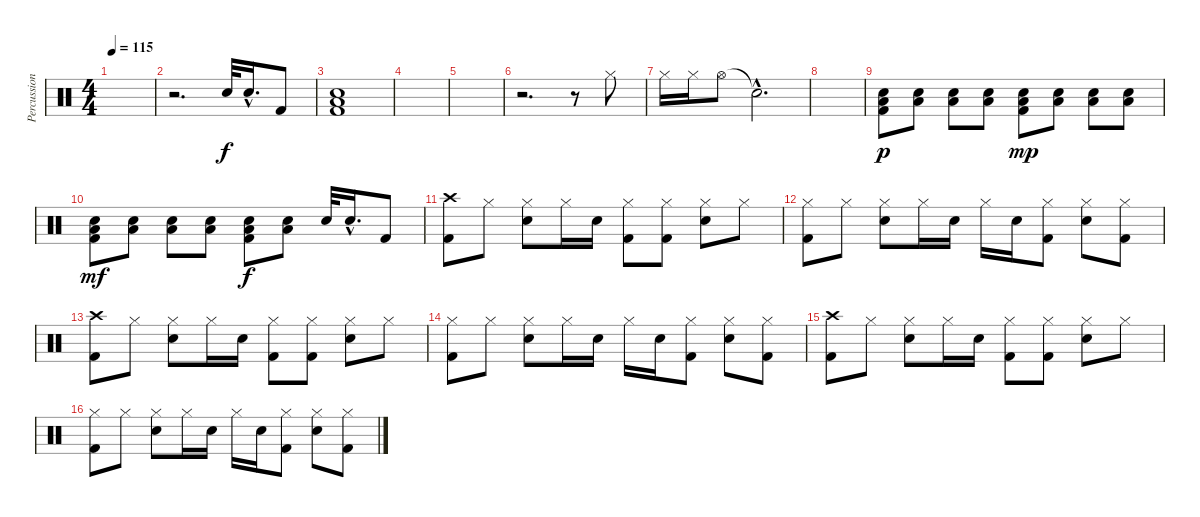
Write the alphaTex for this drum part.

\track ("Percussion" "Percussion") {instrument percussion}
\staff {score}
\articulation defaults
\ts (4 4)
\tempo 115
\clef neutral
\ks c
|
r.2{d} "Snare (hit) 2".32 "Snare (hit) 2"{hac}.16{d} "Kick (hit) 2".8 |
("Low Floor Tom (hit)" "Snare (hit) 2" "Kick (hit) 2").1 |
|
|
r.2{d} r.8 "Hi-Hat (closed)".8 |
"Hi-Hat (closed)".16 "Hi-Hat (closed)".16 "Hi-Hat (open)".8 "Snare (hit)"{hac t}.2{d} |
|
("Low Floor Tom (hit)" "Snare (hit) 2" "Kick (hit) 2").8{dy p} ("Low Floor Tom (hit)" "Snare (hit) 2").8 ("Low Floor Tom (hit)" "Snare (hit) 2").8 ("Low Floor Tom (hit)" "Snare (hit) 2").8 ("Low Floor Tom (hit)" "Snare (hit) 2" "Kick (hit) 2").8{dy mp} ("Low Floor Tom (hit)" "Snare (hit) 2").8 ("Low Floor Tom (hit)" "Snare (hit) 2").8 ("Low Floor Tom (hit)" "Snare (hit) 2").8 |
("Low Floor Tom (hit)" "Snare (hit) 2" "Kick (hit) 2").8{dy mf} ("Low Floor Tom (hit)" "Snare (hit) 2").8 ("Low Floor Tom (hit)" "Snare (hit) 2").8 ("Low Floor Tom (hit)" "Snare (hit) 2").8 ("Low Floor Tom (hit)" "Snare (hit) 2" "Kick (hit) 2").8{dy f} ("Low Floor Tom (hit)" "Snare (hit) 2").8 "Snare (hit) 2".32 "Snare (hit) 2"{hac}.16{d} "Kick (hit) 2".8 |
("Crash high (hit)" "Kick (hit) 2").8 "Hi-Hat (closed)".8 ("Hi-Hat (closed)" "Snare (hit) 2").8 "Hi-Hat (closed)".16 "Snare (hit) 2".16 ("Hi-Hat (closed)" "Kick (hit) 2").8 ("Hi-Hat (closed)" "Kick (hit) 2").8 ("Hi-Hat (closed)" "Snare (hit) 2").8 "Hi-Hat (closed)".8 |
("Hi-Hat (closed)" "Kick (hit) 2").8 "Hi-Hat (closed)".8 ("Hi-Hat (closed)" "Snare (hit) 2").8 "Hi-Hat (closed)".16 "Snare (hit) 2".16 "Hi-Hat (closed)".16 "Snare (hit) 2".16 ("Hi-Hat (closed)" "Kick (hit) 2").8 ("Hi-Hat (closed)" "Snare (hit) 2").8 ("Hi-Hat (closed)" "Kick (hit) 2").8 |
("Crash high (hit)" "Kick (hit) 2").8 "Hi-Hat (closed)".8 ("Hi-Hat (closed)" "Snare (hit) 2").8 "Hi-Hat (closed)".16 "Snare (hit) 2".16 ("Hi-Hat (closed)" "Kick (hit) 2").8 ("Hi-Hat (closed)" "Kick (hit) 2").8 ("Hi-Hat (closed)" "Snare (hit) 2").8 "Hi-Hat (closed)".8 |
("Hi-Hat (closed)" "Kick (hit) 2").8 "Hi-Hat (closed)".8 ("Hi-Hat (closed)" "Snare (hit) 2").8 "Hi-Hat (closed)".16 "Snare (hit) 2".16 "Hi-Hat (closed)".16 "Snare (hit) 2".16 ("Hi-Hat (closed)" "Kick (hit) 2").8 ("Hi-Hat (closed)" "Snare (hit) 2").8 ("Hi-Hat (closed)" "Kick (hit) 2").8 |
("Crash high (hit)" "Kick (hit) 2").8 "Hi-Hat (closed)".8 ("Hi-Hat (closed)" "Snare (hit) 2").8 "Hi-Hat (closed)".16 "Snare (hit) 2".16 ("Hi-Hat (closed)" "Kick (hit) 2").8 ("Hi-Hat (closed)" "Kick (hit) 2").8 ("Hi-Hat (closed)" "Snare (hit) 2").8 "Hi-Hat (closed)".8 |
("Hi-Hat (closed)" "Kick (hit) 2").8 "Hi-Hat (closed)".8 ("Hi-Hat (closed)" "Snare (hit) 2").8 "Hi-Hat (closed)".16 "Snare (hit) 2".16 "Hi-Hat (closed)".16 "Snare (hit) 2".16 ("Hi-Hat (closed)" "Kick (hit) 2").8 ("Hi-Hat (closed)" "Snare (hit) 2").8 ("Hi-Hat (closed)" "Kick (hit) 2").8
